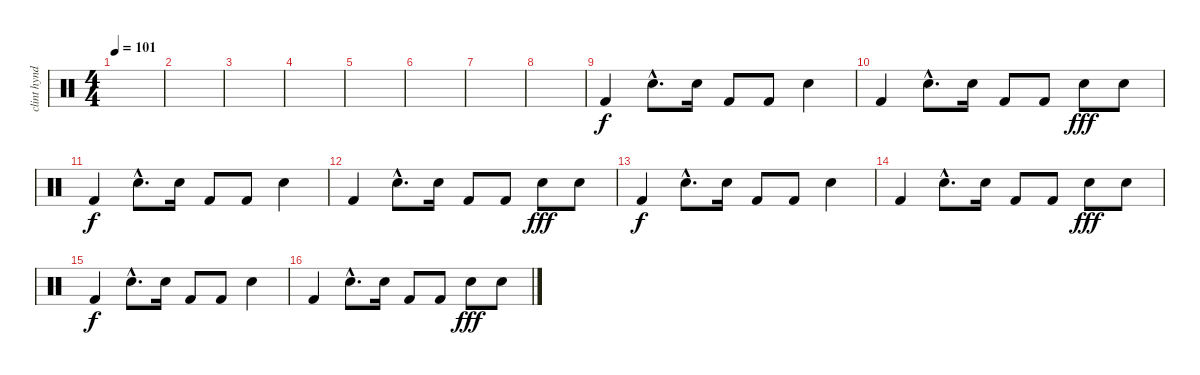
\track ("clint hyndman" "clint hynd") {instrument percussion}
\staff {score}
\articulation defaults
\ts (4 4)
\tempo 101
\clef neutral
\ks c
|
|
|
|
|
|
|
|
"Kick (hit) 2".4 "Electric Snare (hit)"{hac}.8{d} "Electric Snare (hit)".16 "Kick (hit) 2".8 "Kick (hit) 2".8 "Electric Snare (hit)".4 |
"Kick (hit) 2".4 "Electric Snare (hit)"{hac}.8{d} "Electric Snare (hit)".16 "Kick (hit) 2".8 "Kick (hit) 2".8 "Electric Snare (hit)".8{dy fff} "Electric Snare (hit)".8 |
"Kick (hit) 2".4{dy f} "Electric Snare (hit)"{hac}.8{d} "Electric Snare (hit)".16 "Kick (hit) 2".8 "Kick (hit) 2".8 "Electric Snare (hit)".4 |
"Kick (hit) 2".4 "Electric Snare (hit)"{hac}.8{d} "Electric Snare (hit)".16 "Kick (hit) 2".8 "Kick (hit) 2".8 "Electric Snare (hit)".8{dy fff} "Electric Snare (hit)".8 |
"Kick (hit) 2".4{dy f} "Electric Snare (hit)"{hac}.8{d} "Electric Snare (hit)".16 "Kick (hit) 2".8 "Kick (hit) 2".8 "Electric Snare (hit)".4 |
"Kick (hit) 2".4 "Electric Snare (hit)"{hac}.8{d} "Electric Snare (hit)".16 "Kick (hit) 2".8 "Kick (hit) 2".8 "Electric Snare (hit)".8{dy fff} "Electric Snare (hit)".8 |
"Kick (hit) 2".4{dy f} "Electric Snare (hit)"{hac}.8{d} "Electric Snare (hit)".16 "Kick (hit) 2".8 "Kick (hit) 2".8 "Electric Snare (hit)".4 |
"Kick (hit) 2".4 "Electric Snare (hit)"{hac}.8{d} "Electric Snare (hit)".16 "Kick (hit) 2".8 "Kick (hit) 2".8 "Electric Snare (hit)".8{dy fff} "Electric Snare (hit)".8
